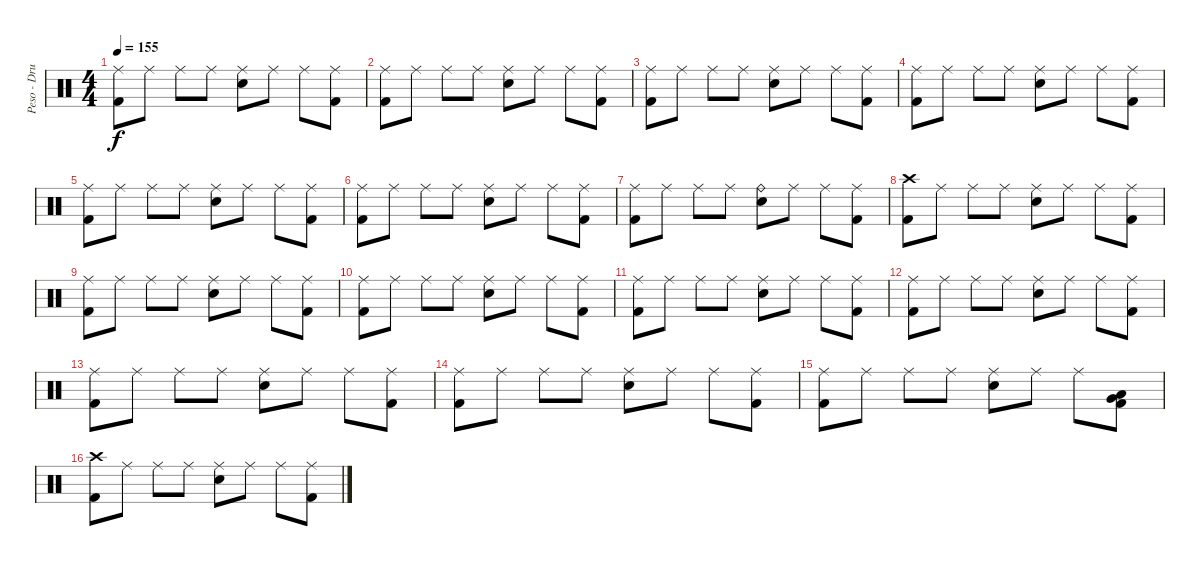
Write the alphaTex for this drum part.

\track ("Peso - Drums" "Peso - Dru") {instrument percussion}
\staff {score}
\articulation defaults
\ts (4 4)
\tempo 155
\clef neutral
\ks c
("Ride (middle)" "Kick (hit) 2").8{dy f} "Ride (middle)".8 "Ride (middle)".8 "Ride (middle)".8 ("Ride (middle)" "Electric Snare (hit)").8 "Ride (middle)".8 "Ride (middle)".8 ("Ride (middle)" "Kick (hit) 2").8 |
("Ride (middle)" "Kick (hit) 2").8 "Ride (middle)".8 "Ride (middle)".8 "Ride (middle)".8 ("Ride (middle)" "Electric Snare (hit)").8 "Ride (middle)".8 "Ride (middle)".8 ("Ride (middle)" "Kick (hit) 2").8 |
("Ride (middle)" "Kick (hit) 2").8 "Ride (middle)".8 "Ride (middle)".8 "Ride (middle)".8 ("Ride (middle)" "Electric Snare (hit)").8 "Ride (middle)".8 "Ride (middle)".8 ("Ride (middle)" "Kick (hit) 2").8 |
("Ride (middle)" "Kick (hit) 2").8 "Ride (middle)".8 "Ride (middle)".8 "Ride (middle)".8 ("Ride (middle)" "Electric Snare (hit)").8 "Ride (middle)".8 "Ride (middle)".8 ("Ride (middle)" "Kick (hit) 2").8 |
("Ride (middle)" "Kick (hit) 2").8 "Ride (middle)".8 "Ride (middle)".8 "Ride (middle)".8 ("Ride (middle)" "Electric Snare (hit)").8 "Ride (middle)".8 "Ride (middle)".8 ("Ride (middle)" "Kick (hit) 2").8 |
("Ride (middle)" "Kick (hit) 2").8 "Ride (middle)".8 "Ride (middle)".8 "Ride (middle)".8 ("Ride (middle)" "Electric Snare (hit)").8 "Ride (middle)".8 "Ride (middle)".8 ("Ride (middle)" "Kick (hit) 2").8 |
("Ride (middle)" "Kick (hit) 2").8 "Ride (middle)".8 "Ride (middle)".8 "Ride (middle)".8 ("Ride (bell)" "Electric Snare (hit)").8 "Ride (middle)".8 "Ride (middle)".8 ("Ride (middle)" "Kick (hit) 2").8 |
("Crash high (hit)" "Kick (hit) 2").8 "Ride (middle)".8 "Ride (middle)".8 "Ride (middle)".8 ("Ride (middle)" "Electric Snare (hit)").8 "Ride (middle)".8 "Ride (middle)".8 ("Ride (middle)" "Kick (hit) 2").8 |
("Ride (middle)" "Kick (hit) 2").8 "Ride (middle)".8 "Ride (middle)".8 "Ride (middle)".8 ("Ride (middle)" "Electric Snare (hit)").8 "Ride (middle)".8 "Ride (middle)".8 ("Ride (middle)" "Kick (hit) 2").8 |
("Ride (middle)" "Kick (hit) 2").8 "Ride (middle)".8 "Ride (middle)".8 "Ride (middle)".8 ("Ride (middle)" "Electric Snare (hit)").8 "Ride (middle)".8 "Ride (middle)".8 ("Ride (middle)" "Kick (hit) 2").8 |
("Ride (middle)" "Kick (hit) 2").8 "Ride (middle)".8 "Ride (middle)".8 "Ride (middle)".8 ("Ride (middle)" "Electric Snare (hit)").8 "Ride (middle)".8 "Ride (middle)".8 ("Ride (middle)" "Kick (hit) 2").8 |
("Ride (middle)" "Kick (hit) 2").8 "Ride (middle)".8 "Ride (middle)".8 "Ride (middle)".8 ("Ride (middle)" "Electric Snare (hit)").8 "Ride (middle)".8 "Ride (middle)".8 ("Ride (middle)" "Kick (hit) 2").8 |
("Ride (middle)" "Kick (hit) 2").8 "Ride (middle)".8 "Ride (middle)".8 "Ride (middle)".8 ("Ride (middle)" "Electric Snare (hit)").8 "Ride (middle)".8 "Ride (middle)".8 ("Ride (middle)" "Kick (hit) 2").8 |
("Ride (middle)" "Kick (hit) 2").8 "Ride (middle)".8 "Ride (middle)".8 "Ride (middle)".8 ("Ride (middle)" "Electric Snare (hit)").8 "Ride (middle)".8 "Ride (middle)".8 ("Ride (middle)" "Kick (hit) 2").8 |
("Ride (middle)" "Kick (hit) 2").8 "Ride (middle)".8 "Ride (middle)".8 "Ride (middle)".8 ("Ride (middle)" "Electric Snare (hit)").8 "Ride (middle)".8 "Ride (middle)".8 ("Very Low Tom (hit)" "Low Floor Tom (hit)" "Kick (hit) 2").8 |
("Crash high (hit)" "Kick (hit) 2").8{volume 12} "Ride (middle)".8 "Ride (middle)".8 "Ride (middle)".8 ("Ride (middle)" "Electric Snare (hit)").8 "Ride (middle)".8 "Ride (middle)".8 ("Ride (middle)" "Kick (hit) 2").8
